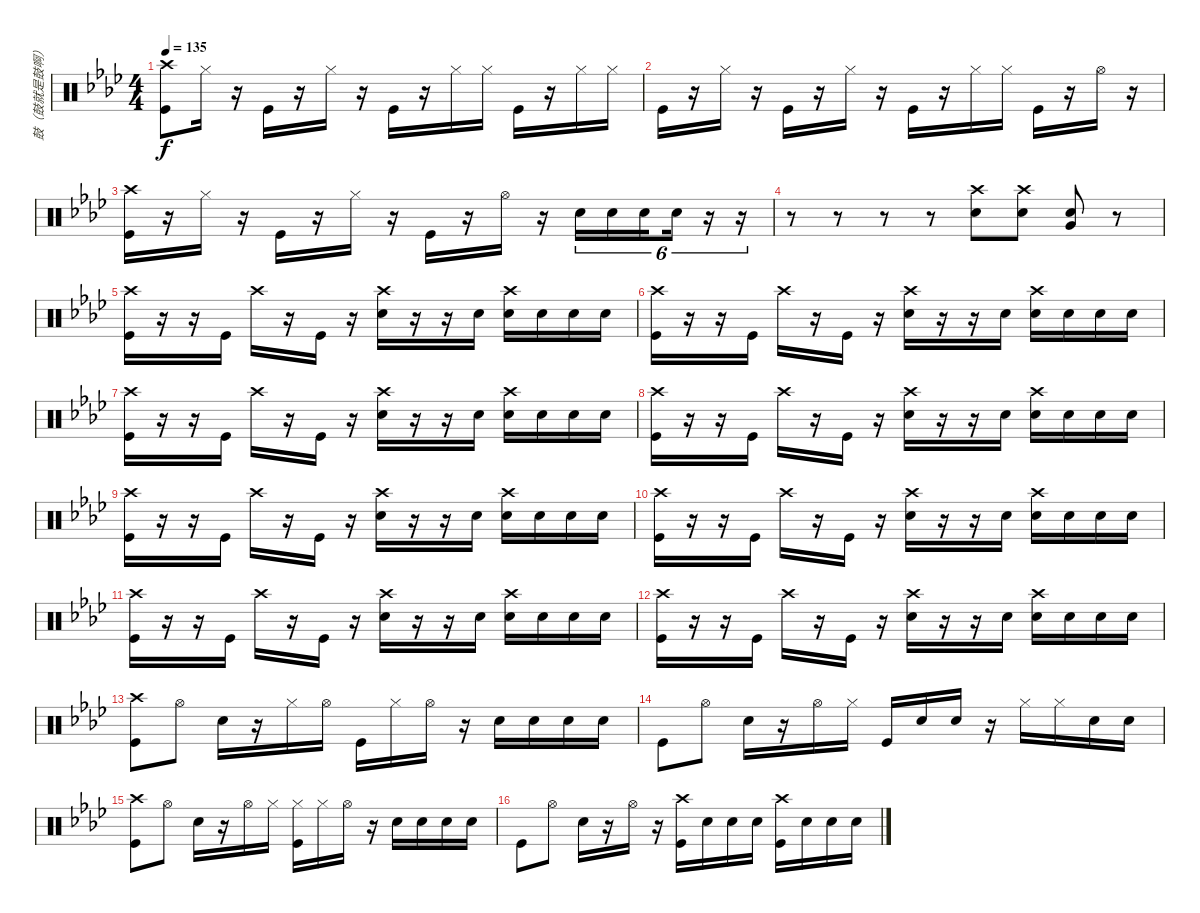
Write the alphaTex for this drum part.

\track ("鼓（鼓就是鼓啊）" "鼓（鼓就是鼓啊）") {instrument percussion}
\staff {score}
\articulation defaults
\ts (4 4)
\tempo 135
\clef neutral
\ks ab
("Crash high (hit)" "Kick (hit)").8{dy f} "Hi-Hat (closed)".16 r.16 "Kick (hit)".16 r.16 "Hi-Hat (closed)".16 r.16 "Kick (hit)".16 r.16 "Hi-Hat (closed)".16 "Hi-Hat (closed)".16 "Kick (hit)".16 r.16 "Hi-Hat (closed)".16 "Hi-Hat (closed)".16 |
"Kick (hit)".16 r.16 "Hi-Hat (closed)".16 r.16 "Kick (hit)".16 r.16 "Hi-Hat (closed)".16 r.16 "Kick (hit)".16 r.16 "Hi-Hat (closed)".16 "Hi-Hat (closed)".16 "Kick (hit)".16 r.16 "Hi-Hat (open)".16 r.16 |
("Crash high (hit)" "Kick (hit)").16 r.16 "Hi-Hat (closed)".16 r.16 "Kick (hit)".16 r.16 "Hi-Hat (closed)".16 r.16 "Kick (hit)".16 r.16 "Hi-Hat (open)".16 r.16 "Snare (hit) 2".16{tu (6 4)} "Snare (hit) 2".16{tu (6 4)} "Snare (hit) 2".16{tu (6 4) beam splitsecondary} "Snare (hit) 2".16{tu (6 4)} r.16{tu (6 4)} r.16{tu (6 4)} |
r.8 r.8 r.8 r.8 ("Crash high (hit)" "Snare (hit) 2").8 ("Crash high (hit)" "Snare (hit) 2").8 ("Snare (hit) 2" "Very Low Tom (hit)").8 r.8 |
("Crash high (hit)" "Kick (hit)").16 r.16 r.16 "Kick (hit)".16 "Crash high (hit)".16 r.16 "Kick (hit)".16 r.16 ("Crash high (hit)" "Snare (hit) 2").16 r.16 r.16 "Snare (hit) 2".16 ("Crash high (hit)" "Snare (hit) 2").16 "Snare (hit) 2".16 "Snare (hit) 2".16 "Snare (hit) 2".16 |
("Crash high (hit)" "Kick (hit)").16 r.16 r.16 "Kick (hit)".16 "Crash high (hit)".16 r.16 "Kick (hit)".16 r.16 ("Crash high (hit)" "Snare (hit) 2").16 r.16 r.16 "Snare (hit) 2".16 ("Crash high (hit)" "Snare (hit) 2").16 "Snare (hit) 2".16 "Snare (hit) 2".16 "Snare (hit) 2".16 |
("Crash high (hit)" "Kick (hit)").16 r.16 r.16 "Kick (hit)".16 "Crash high (hit)".16 r.16 "Kick (hit)".16 r.16 ("Crash high (hit)" "Snare (hit) 2").16 r.16 r.16 "Snare (hit) 2".16 ("Crash high (hit)" "Snare (hit) 2").16 "Snare (hit) 2".16 "Snare (hit) 2".16 "Snare (hit) 2".16 |
("Crash high (hit)" "Kick (hit)").16 r.16 r.16 "Kick (hit)".16 "Crash high (hit)".16 r.16 "Kick (hit)".16 r.16 ("Crash high (hit)" "Snare (hit) 2").16 r.16 r.16 "Snare (hit) 2".16 ("Crash high (hit)" "Snare (hit) 2").16 "Snare (hit) 2".16 "Snare (hit) 2".16 "Snare (hit) 2".16 |
("Crash high (hit)" "Kick (hit)").16 r.16 r.16 "Kick (hit)".16 "Crash high (hit)".16 r.16 "Kick (hit)".16 r.16 ("Crash high (hit)" "Snare (hit) 2").16 r.16 r.16 "Snare (hit) 2".16 ("Crash high (hit)" "Snare (hit) 2").16 "Snare (hit) 2".16 "Snare (hit) 2".16 "Snare (hit) 2".16 |
("Crash high (hit)" "Kick (hit)").16 r.16 r.16 "Kick (hit)".16 "Crash high (hit)".16 r.16 "Kick (hit)".16 r.16 ("Crash high (hit)" "Snare (hit) 2").16 r.16 r.16 "Snare (hit) 2".16 ("Crash high (hit)" "Snare (hit) 2").16 "Snare (hit) 2".16 "Snare (hit) 2".16 "Snare (hit) 2".16 |
("Crash high (hit)" "Kick (hit)").16 r.16 r.16 "Kick (hit)".16 "Crash high (hit)".16 r.16 "Kick (hit)".16 r.16 ("Crash high (hit)" "Snare (hit) 2").16 r.16 r.16 "Snare (hit) 2".16 ("Crash high (hit)" "Snare (hit) 2").16 "Snare (hit) 2".16 "Snare (hit) 2".16 "Snare (hit) 2".16 |
("Crash high (hit)" "Kick (hit)").16 r.16 r.16 "Kick (hit)".16 "Crash high (hit)".16 r.16 "Kick (hit)".16 r.16 ("Crash high (hit)" "Snare (hit) 2").16 r.16 r.16 "Snare (hit) 2".16 ("Crash high (hit)" "Snare (hit) 2").16 "Snare (hit) 2".16 "Snare (hit) 2".16 "Snare (hit) 2".16 |
("Crash high (hit)" "Kick (hit)").8 "Hi-Hat (open)".8 "Snare (hit) 2".16 r.16 "Hi-Hat (closed)".16 "Hi-Hat (open)".16 "Kick (hit)".16 "Hi-Hat (closed)".16 "Hi-Hat (open)".16 r.16 "Snare (hit) 2".16 "Snare (hit) 2".16 "Snare (hit) 2".16 "Snare (hit) 2".16 |
"Kick (hit)".8 "Hi-Hat (open)".8 "Snare (hit) 2".16 r.16 "Hi-Hat (open)".16 "Hi-Hat (closed)".16 "Kick (hit)".16 "Snare (hit) 2".16 "Snare (hit) 2".16 r.16 "Hi-Hat (closed)".16 "Hi-Hat (closed)".16 "Snare (hit) 2".16 "Snare (hit) 2".16 |
("Crash high (hit)" "Kick (hit)").8 "Hi-Hat (open)".8 "Snare (hit) 2".16 r.16 "Hi-Hat (open)".16 "Hi-Hat (closed)".16 ("Hi-Hat (closed)" "Kick (hit)").16 "Hi-Hat (closed)".16 "Hi-Hat (open)".16 r.16 "Snare (hit) 2".16 "Snare (hit) 2".16 "Snare (hit) 2".16 "Snare (hit) 2".16 |
"Kick (hit)".8 "Hi-Hat (open)".8 "Snare (hit) 2".16 r.16 "Hi-Hat (open)".16 r.16 ("Crash high (hit)" "Kick (hit)").16 "Snare (hit) 2".16 "Snare (hit) 2".16 "Snare (hit) 2".16 ("Crash high (hit)" "Kick (hit)").16 "Snare (hit) 2".16 "Snare (hit) 2".16 "Snare (hit) 2".16
